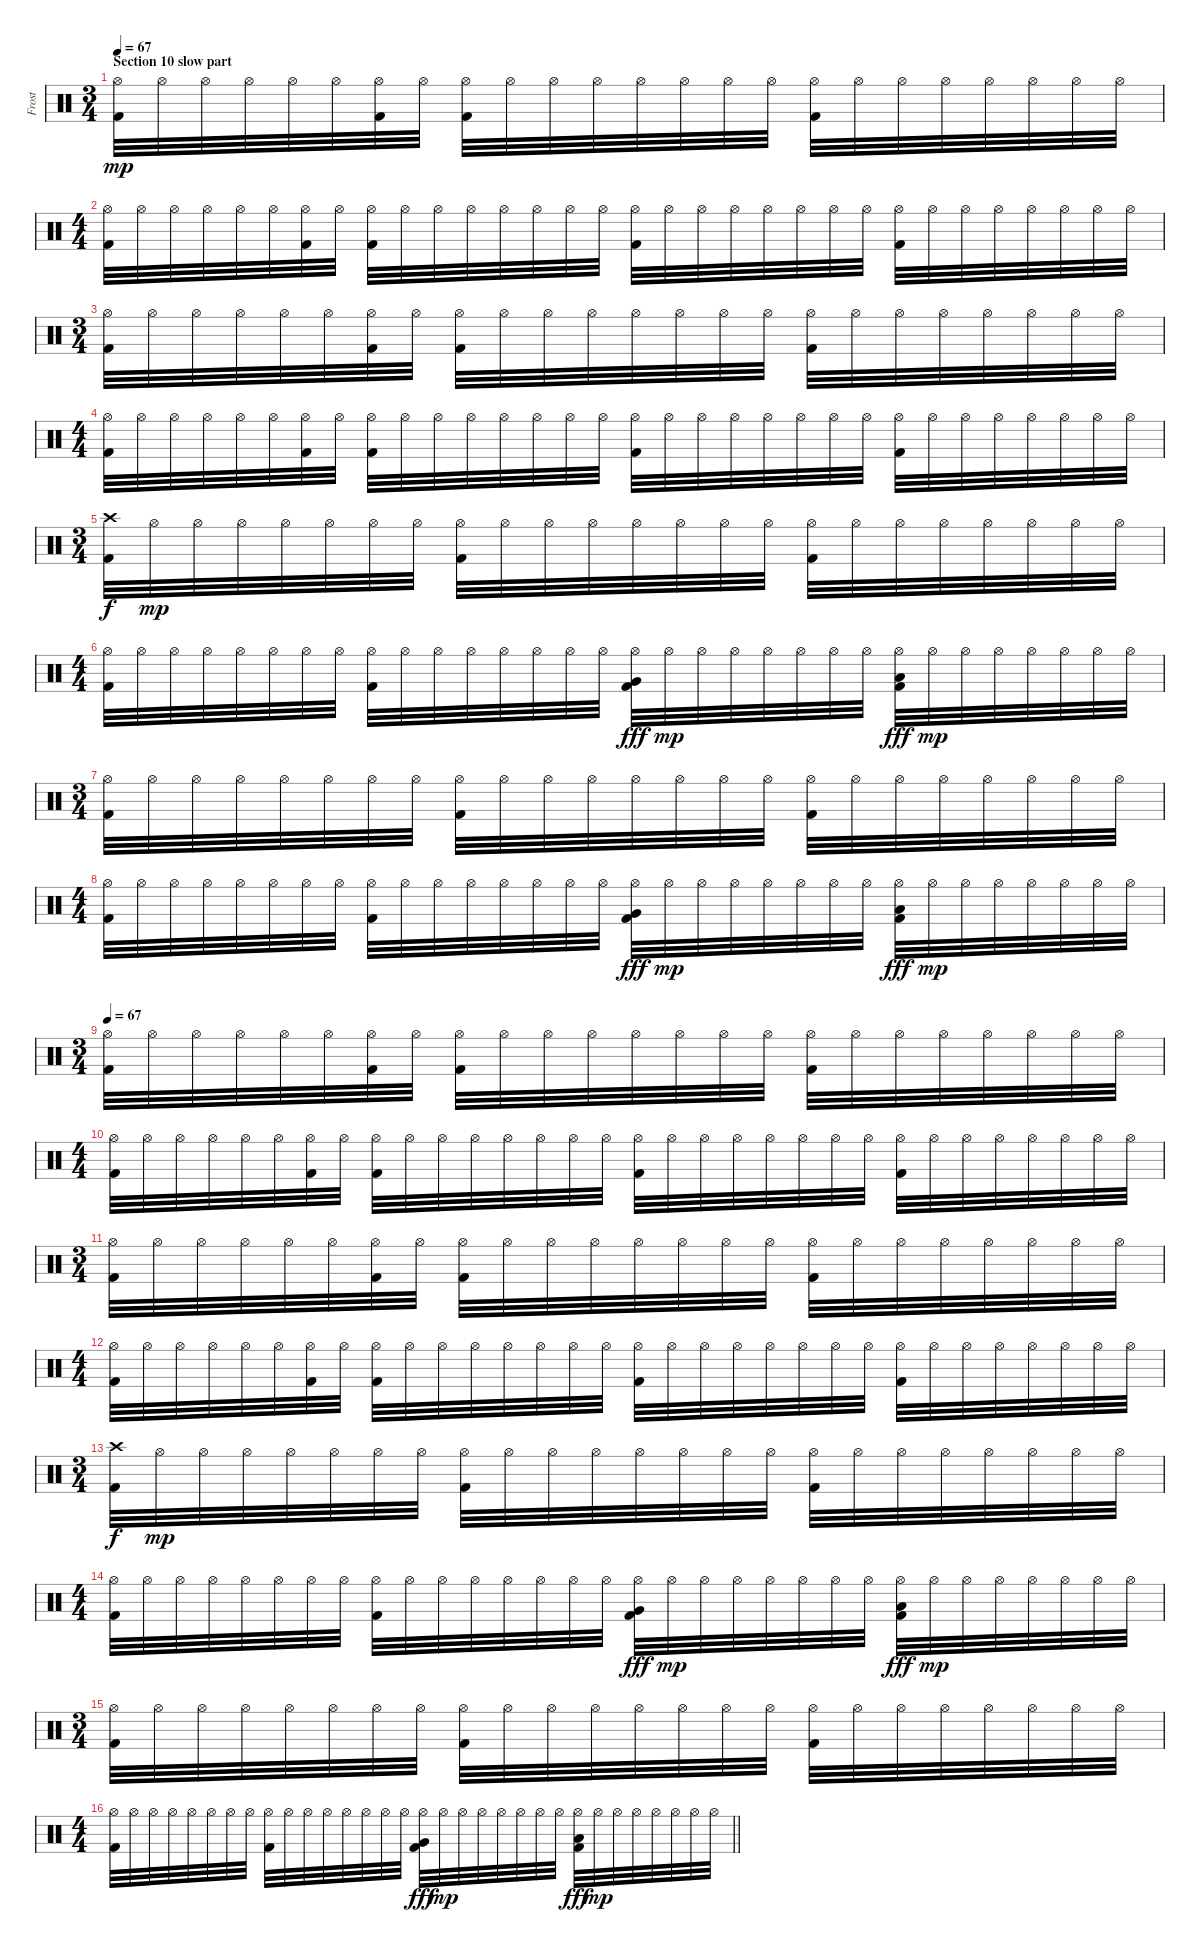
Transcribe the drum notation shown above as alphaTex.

\track ("Frost" "Frost") {instrument percussion}
\staff {score}
\articulation defaults
\ts (3 4)
\section ("" "Section 10 slow part")
\tempo 67
\clef neutral
\ks c
("Hi-Hat (open)" "Kick (hit) 2").32{dy mp} "Hi-Hat (open)".32 "Hi-Hat (open)".32 "Hi-Hat (open)".32 "Hi-Hat (open)".32 "Hi-Hat (open)".32 ("Hi-Hat (open)" "Kick (hit) 2").32 "Hi-Hat (open)".32 ("Hi-Hat (open)" "Kick (hit) 2").32 "Hi-Hat (open)".32 "Hi-Hat (open)".32 "Hi-Hat (open)".32 "Hi-Hat (open)".32 "Hi-Hat (open)".32 "Hi-Hat (open)".32 "Hi-Hat (open)".32 ("Hi-Hat (open)" "Kick (hit) 2").32 "Hi-Hat (open)".32 "Hi-Hat (open)".32 "Hi-Hat (open)".32 "Hi-Hat (open)".32 "Hi-Hat (open)".32 "Hi-Hat (open)".32 "Hi-Hat (open)".32 |
\ts (4 4)
("Hi-Hat (open)" "Kick (hit) 2").32 "Hi-Hat (open)".32 "Hi-Hat (open)".32 "Hi-Hat (open)".32 "Hi-Hat (open)".32 "Hi-Hat (open)".32 ("Hi-Hat (open)" "Kick (hit) 2").32 "Hi-Hat (open)".32 ("Hi-Hat (open)" "Kick (hit) 2").32 "Hi-Hat (open)".32 "Hi-Hat (open)".32 "Hi-Hat (open)".32 "Hi-Hat (open)".32 "Hi-Hat (open)".32 "Hi-Hat (open)".32 "Hi-Hat (open)".32 ("Hi-Hat (open)" "Kick (hit) 2").32 "Hi-Hat (open)".32 "Hi-Hat (open)".32 "Hi-Hat (open)".32 "Hi-Hat (open)".32 "Hi-Hat (open)".32 "Hi-Hat (open)".32 "Hi-Hat (open)".32 ("Hi-Hat (open)" "Kick (hit) 2").32 "Hi-Hat (open)".32 "Hi-Hat (open)".32 "Hi-Hat (open)".32 "Hi-Hat (open)".32 "Hi-Hat (open)".32 "Hi-Hat (open)".32 "Hi-Hat (open)".32 |
\ts (3 4)
("Hi-Hat (open)" "Kick (hit) 2").32 "Hi-Hat (open)".32 "Hi-Hat (open)".32 "Hi-Hat (open)".32 "Hi-Hat (open)".32 "Hi-Hat (open)".32 ("Hi-Hat (open)" "Kick (hit) 2").32 "Hi-Hat (open)".32 ("Hi-Hat (open)" "Kick (hit) 2").32 "Hi-Hat (open)".32 "Hi-Hat (open)".32 "Hi-Hat (open)".32 "Hi-Hat (open)".32 "Hi-Hat (open)".32 "Hi-Hat (open)".32 "Hi-Hat (open)".32 ("Hi-Hat (open)" "Kick (hit) 2").32 "Hi-Hat (open)".32 "Hi-Hat (open)".32 "Hi-Hat (open)".32 "Hi-Hat (open)".32 "Hi-Hat (open)".32 "Hi-Hat (open)".32 "Hi-Hat (open)".32 |
\ts (4 4)
("Hi-Hat (open)" "Kick (hit) 2").32 "Hi-Hat (open)".32 "Hi-Hat (open)".32 "Hi-Hat (open)".32 "Hi-Hat (open)".32 "Hi-Hat (open)".32 ("Hi-Hat (open)" "Kick (hit) 2").32 "Hi-Hat (open)".32 ("Hi-Hat (open)" "Kick (hit) 2").32 "Hi-Hat (open)".32 "Hi-Hat (open)".32 "Hi-Hat (open)".32 "Hi-Hat (open)".32 "Hi-Hat (open)".32 "Hi-Hat (open)".32 "Hi-Hat (open)".32 ("Hi-Hat (open)" "Kick (hit) 2").32 "Hi-Hat (open)".32 "Hi-Hat (open)".32 "Hi-Hat (open)".32 "Hi-Hat (open)".32 "Hi-Hat (open)".32 "Hi-Hat (open)".32 "Hi-Hat (open)".32 ("Hi-Hat (open)" "Kick (hit) 2").32 "Hi-Hat (open)".32 "Hi-Hat (open)".32 "Hi-Hat (open)".32 "Hi-Hat (open)".32 "Hi-Hat (open)".32 "Hi-Hat (open)".32 "Hi-Hat (open)".32 |
\ts (3 4)
("Crash high (hit)" "Kick (hit) 2").32{dy f} "Hi-Hat (open)".32{dy mp} "Hi-Hat (open)".32 "Hi-Hat (open)".32 "Hi-Hat (open)".32 "Hi-Hat (open)".32 "Hi-Hat (open)".32 "Hi-Hat (open)".32 ("Hi-Hat (open)" "Kick (hit) 2").32 "Hi-Hat (open)".32 "Hi-Hat (open)".32 "Hi-Hat (open)".32 "Hi-Hat (open)".32 "Hi-Hat (open)".32 "Hi-Hat (open)".32 "Hi-Hat (open)".32 ("Hi-Hat (open)" "Kick (hit) 2").32 "Hi-Hat (open)".32 "Hi-Hat (open)".32 "Hi-Hat (open)".32 "Hi-Hat (open)".32 "Hi-Hat (open)".32 "Hi-Hat (open)".32 "Hi-Hat (open)".32 |
\ts (4 4)
("Hi-Hat (open)" "Kick (hit) 2").32 "Hi-Hat (open)".32 "Hi-Hat (open)".32 "Hi-Hat (open)".32 "Hi-Hat (open)".32 "Hi-Hat (open)".32 "Hi-Hat (open)".32 "Hi-Hat (open)".32 ("Hi-Hat (open)" "Kick (hit) 2").32 "Hi-Hat (open)".32 "Hi-Hat (open)".32 "Hi-Hat (open)".32 "Hi-Hat (open)".32 "Hi-Hat (open)".32 "Hi-Hat (open)".32 "Hi-Hat (open)".32 ("Hi-Hat (open)" "Very Low Tom (hit)" "Kick (hit) 2").32{dy fff} "Hi-Hat (open)".32{dy mp} "Hi-Hat (open)".32 "Hi-Hat (open)".32 "Hi-Hat (open)".32 "Hi-Hat (open)".32 "Hi-Hat (open)".32 "Hi-Hat (open)".32 ("Hi-Hat (open)" "Low Floor Tom (hit)" "Kick (hit) 2").32{dy fff} "Hi-Hat (open)".32{dy mp} "Hi-Hat (open)".32 "Hi-Hat (open)".32 "Hi-Hat (open)".32 "Hi-Hat (open)".32 "Hi-Hat (open)".32 "Hi-Hat (open)".32 |
\ts (3 4)
("Hi-Hat (open)" "Kick (hit) 2").32 "Hi-Hat (open)".32 "Hi-Hat (open)".32 "Hi-Hat (open)".32 "Hi-Hat (open)".32 "Hi-Hat (open)".32 "Hi-Hat (open)".32 "Hi-Hat (open)".32 ("Hi-Hat (open)" "Kick (hit) 2").32 "Hi-Hat (open)".32 "Hi-Hat (open)".32 "Hi-Hat (open)".32 "Hi-Hat (open)".32 "Hi-Hat (open)".32 "Hi-Hat (open)".32 "Hi-Hat (open)".32 ("Hi-Hat (open)" "Kick (hit) 2").32 "Hi-Hat (open)".32 "Hi-Hat (open)".32 "Hi-Hat (open)".32 "Hi-Hat (open)".32 "Hi-Hat (open)".32 "Hi-Hat (open)".32 "Hi-Hat (open)".32 |
\ts (4 4)
("Hi-Hat (open)" "Kick (hit) 2").32 "Hi-Hat (open)".32 "Hi-Hat (open)".32 "Hi-Hat (open)".32 "Hi-Hat (open)".32 "Hi-Hat (open)".32 "Hi-Hat (open)".32 "Hi-Hat (open)".32 ("Hi-Hat (open)" "Kick (hit) 2").32 "Hi-Hat (open)".32 "Hi-Hat (open)".32 "Hi-Hat (open)".32 "Hi-Hat (open)".32 "Hi-Hat (open)".32 "Hi-Hat (open)".32 "Hi-Hat (open)".32 ("Hi-Hat (open)" "Very Low Tom (hit)" "Kick (hit) 2").32{dy fff} "Hi-Hat (open)".32{dy mp} "Hi-Hat (open)".32 "Hi-Hat (open)".32 "Hi-Hat (open)".32 "Hi-Hat (open)".32 "Hi-Hat (open)".32 "Hi-Hat (open)".32 ("Hi-Hat (open)" "Low Floor Tom (hit)" "Kick (hit) 2").32{dy fff} "Hi-Hat (open)".32{dy mp} "Hi-Hat (open)".32 "Hi-Hat (open)".32 "Hi-Hat (open)".32 "Hi-Hat (open)".32 "Hi-Hat (open)".32 "Hi-Hat (open)".32 |
\ts (3 4)
\tempo 67
("Hi-Hat (open)" "Kick (hit) 2").32 "Hi-Hat (open)".32 "Hi-Hat (open)".32 "Hi-Hat (open)".32 "Hi-Hat (open)".32 "Hi-Hat (open)".32 ("Hi-Hat (open)" "Kick (hit) 2").32 "Hi-Hat (open)".32 ("Hi-Hat (open)" "Kick (hit) 2").32 "Hi-Hat (open)".32 "Hi-Hat (open)".32 "Hi-Hat (open)".32 "Hi-Hat (open)".32 "Hi-Hat (open)".32 "Hi-Hat (open)".32 "Hi-Hat (open)".32 ("Hi-Hat (open)" "Kick (hit) 2").32 "Hi-Hat (open)".32 "Hi-Hat (open)".32 "Hi-Hat (open)".32 "Hi-Hat (open)".32 "Hi-Hat (open)".32 "Hi-Hat (open)".32 "Hi-Hat (open)".32 |
\ts (4 4)
("Hi-Hat (open)" "Kick (hit) 2").32 "Hi-Hat (open)".32 "Hi-Hat (open)".32 "Hi-Hat (open)".32 "Hi-Hat (open)".32 "Hi-Hat (open)".32 ("Hi-Hat (open)" "Kick (hit) 2").32 "Hi-Hat (open)".32 ("Hi-Hat (open)" "Kick (hit) 2").32 "Hi-Hat (open)".32 "Hi-Hat (open)".32 "Hi-Hat (open)".32 "Hi-Hat (open)".32 "Hi-Hat (open)".32 "Hi-Hat (open)".32 "Hi-Hat (open)".32 ("Hi-Hat (open)" "Kick (hit) 2").32 "Hi-Hat (open)".32 "Hi-Hat (open)".32 "Hi-Hat (open)".32 "Hi-Hat (open)".32 "Hi-Hat (open)".32 "Hi-Hat (open)".32 "Hi-Hat (open)".32 ("Hi-Hat (open)" "Kick (hit) 2").32 "Hi-Hat (open)".32 "Hi-Hat (open)".32 "Hi-Hat (open)".32 "Hi-Hat (open)".32 "Hi-Hat (open)".32 "Hi-Hat (open)".32 "Hi-Hat (open)".32 |
\ts (3 4)
("Hi-Hat (open)" "Kick (hit) 2").32 "Hi-Hat (open)".32 "Hi-Hat (open)".32 "Hi-Hat (open)".32 "Hi-Hat (open)".32 "Hi-Hat (open)".32 ("Hi-Hat (open)" "Kick (hit) 2").32 "Hi-Hat (open)".32 ("Hi-Hat (open)" "Kick (hit) 2").32 "Hi-Hat (open)".32 "Hi-Hat (open)".32 "Hi-Hat (open)".32 "Hi-Hat (open)".32 "Hi-Hat (open)".32 "Hi-Hat (open)".32 "Hi-Hat (open)".32 ("Hi-Hat (open)" "Kick (hit) 2").32 "Hi-Hat (open)".32 "Hi-Hat (open)".32 "Hi-Hat (open)".32 "Hi-Hat (open)".32 "Hi-Hat (open)".32 "Hi-Hat (open)".32 "Hi-Hat (open)".32 |
\ts (4 4)
("Hi-Hat (open)" "Kick (hit) 2").32 "Hi-Hat (open)".32 "Hi-Hat (open)".32 "Hi-Hat (open)".32 "Hi-Hat (open)".32 "Hi-Hat (open)".32 ("Hi-Hat (open)" "Kick (hit) 2").32 "Hi-Hat (open)".32 ("Hi-Hat (open)" "Kick (hit) 2").32 "Hi-Hat (open)".32 "Hi-Hat (open)".32 "Hi-Hat (open)".32 "Hi-Hat (open)".32 "Hi-Hat (open)".32 "Hi-Hat (open)".32 "Hi-Hat (open)".32 ("Hi-Hat (open)" "Kick (hit) 2").32 "Hi-Hat (open)".32 "Hi-Hat (open)".32 "Hi-Hat (open)".32 "Hi-Hat (open)".32 "Hi-Hat (open)".32 "Hi-Hat (open)".32 "Hi-Hat (open)".32 ("Hi-Hat (open)" "Kick (hit) 2").32 "Hi-Hat (open)".32 "Hi-Hat (open)".32 "Hi-Hat (open)".32 "Hi-Hat (open)".32 "Hi-Hat (open)".32 "Hi-Hat (open)".32 "Hi-Hat (open)".32 |
\ts (3 4)
("Crash high (hit)" "Kick (hit) 2").32{dy f} "Hi-Hat (open)".32{dy mp} "Hi-Hat (open)".32 "Hi-Hat (open)".32 "Hi-Hat (open)".32 "Hi-Hat (open)".32 "Hi-Hat (open)".32 "Hi-Hat (open)".32 ("Hi-Hat (open)" "Kick (hit) 2").32 "Hi-Hat (open)".32 "Hi-Hat (open)".32 "Hi-Hat (open)".32 "Hi-Hat (open)".32 "Hi-Hat (open)".32 "Hi-Hat (open)".32 "Hi-Hat (open)".32 ("Hi-Hat (open)" "Kick (hit) 2").32 "Hi-Hat (open)".32 "Hi-Hat (open)".32 "Hi-Hat (open)".32 "Hi-Hat (open)".32 "Hi-Hat (open)".32 "Hi-Hat (open)".32 "Hi-Hat (open)".32 |
\ts (4 4)
("Hi-Hat (open)" "Kick (hit) 2").32 "Hi-Hat (open)".32 "Hi-Hat (open)".32 "Hi-Hat (open)".32 "Hi-Hat (open)".32 "Hi-Hat (open)".32 "Hi-Hat (open)".32 "Hi-Hat (open)".32 ("Hi-Hat (open)" "Kick (hit) 2").32 "Hi-Hat (open)".32 "Hi-Hat (open)".32 "Hi-Hat (open)".32 "Hi-Hat (open)".32 "Hi-Hat (open)".32 "Hi-Hat (open)".32 "Hi-Hat (open)".32 ("Hi-Hat (open)" "Very Low Tom (hit)" "Kick (hit) 2").32{dy fff} "Hi-Hat (open)".32{dy mp} "Hi-Hat (open)".32 "Hi-Hat (open)".32 "Hi-Hat (open)".32 "Hi-Hat (open)".32 "Hi-Hat (open)".32 "Hi-Hat (open)".32 ("Hi-Hat (open)" "Low Floor Tom (hit)" "Kick (hit) 2").32{dy fff} "Hi-Hat (open)".32{dy mp} "Hi-Hat (open)".32 "Hi-Hat (open)".32 "Hi-Hat (open)".32 "Hi-Hat (open)".32 "Hi-Hat (open)".32 "Hi-Hat (open)".32 |
\ts (3 4)
("Hi-Hat (open)" "Kick (hit) 2").32 "Hi-Hat (open)".32 "Hi-Hat (open)".32 "Hi-Hat (open)".32 "Hi-Hat (open)".32 "Hi-Hat (open)".32 "Hi-Hat (open)".32 "Hi-Hat (open)".32 ("Hi-Hat (open)" "Kick (hit) 2").32 "Hi-Hat (open)".32 "Hi-Hat (open)".32 "Hi-Hat (open)".32 "Hi-Hat (open)".32 "Hi-Hat (open)".32 "Hi-Hat (open)".32 "Hi-Hat (open)".32 ("Hi-Hat (open)" "Kick (hit) 2").32 "Hi-Hat (open)".32 "Hi-Hat (open)".32 "Hi-Hat (open)".32 "Hi-Hat (open)".32 "Hi-Hat (open)".32 "Hi-Hat (open)".32 "Hi-Hat (open)".32 |
\ts (4 4)
\barLineRight lightlight
("Hi-Hat (open)" "Kick (hit) 2").32 "Hi-Hat (open)".32 "Hi-Hat (open)".32 "Hi-Hat (open)".32 "Hi-Hat (open)".32 "Hi-Hat (open)".32 "Hi-Hat (open)".32 "Hi-Hat (open)".32 ("Hi-Hat (open)" "Kick (hit) 2").32 "Hi-Hat (open)".32 "Hi-Hat (open)".32 "Hi-Hat (open)".32 "Hi-Hat (open)".32 "Hi-Hat (open)".32 "Hi-Hat (open)".32 "Hi-Hat (open)".32 ("Hi-Hat (open)" "Very Low Tom (hit)" "Kick (hit) 2").32{dy fff} "Hi-Hat (open)".32{dy mp} "Hi-Hat (open)".32 "Hi-Hat (open)".32 "Hi-Hat (open)".32 "Hi-Hat (open)".32 "Hi-Hat (open)".32 "Hi-Hat (open)".32 ("Hi-Hat (open)" "Low Floor Tom (hit)" "Kick (hit) 2").32{dy fff} "Hi-Hat (open)".32{dy mp} "Hi-Hat (open)".32 "Hi-Hat (open)".32 "Hi-Hat (open)".32 "Hi-Hat (open)".32 "Hi-Hat (open)".32 "Hi-Hat (open)".32
